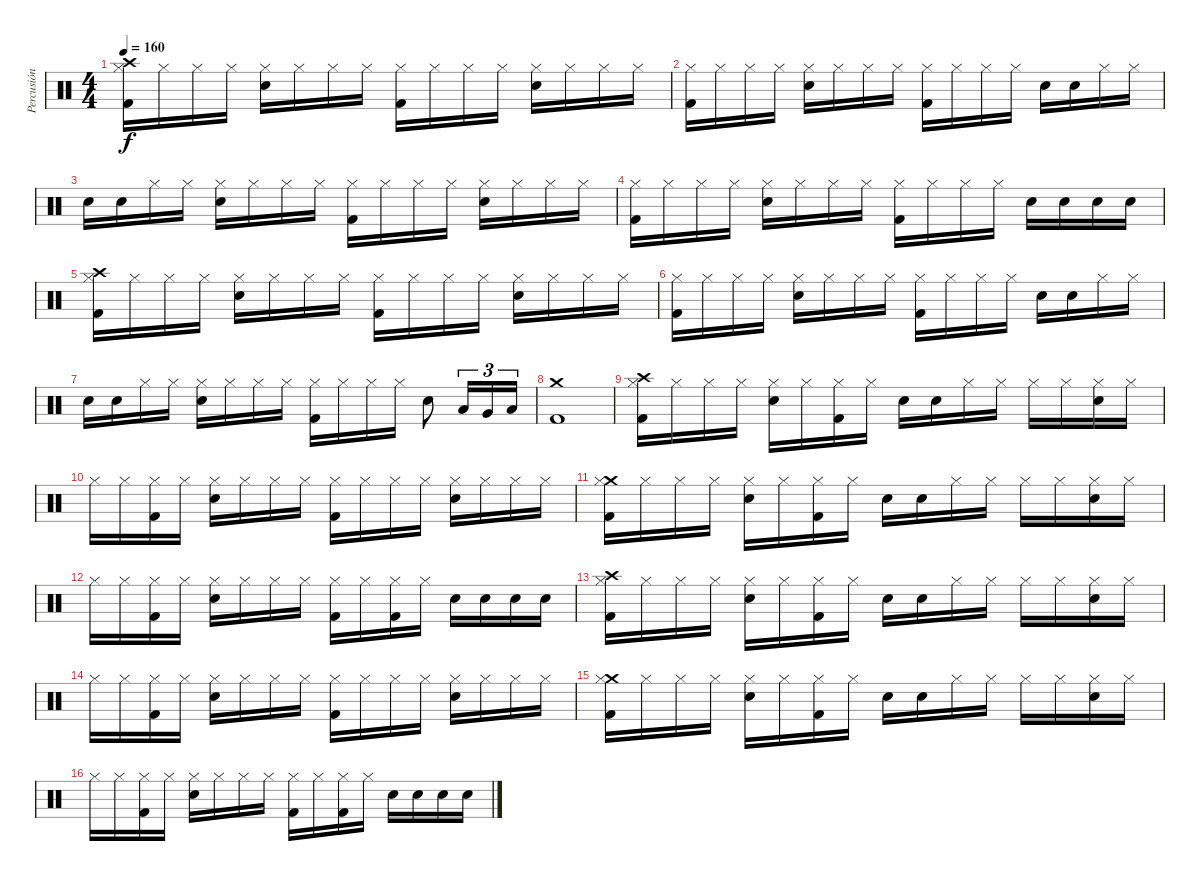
\track ("Percusión" "Percusión") {instrument percussion}
\staff {score}
\articulation defaults
\ts (4 4)
\tempo 160
\clef neutral
\ks c
("Crash high (hit)" "Hi-Hat (closed)" "Kick (hit) 2").16{dy f} "Hi-Hat (closed)".16 "Hi-Hat (closed)".16 "Hi-Hat (closed)".16 ("Hi-Hat (closed)" "Snare (hit) 2").16 "Hi-Hat (closed)".16 "Hi-Hat (closed)".16 "Hi-Hat (closed)".16 ("Hi-Hat (closed)" "Kick (hit) 2").16 "Hi-Hat (closed)".16 "Hi-Hat (closed)".16 "Hi-Hat (closed)".16 ("Hi-Hat (closed)" "Snare (hit) 2").16 "Hi-Hat (closed)".16 "Hi-Hat (closed)".16 "Hi-Hat (closed)".16 |
("Hi-Hat (closed)" "Kick (hit) 2").16 "Hi-Hat (closed)".16 "Hi-Hat (closed)".16 "Hi-Hat (closed)".16 ("Hi-Hat (closed)" "Snare (hit) 2").16 "Hi-Hat (closed)".16 "Hi-Hat (closed)".16 "Hi-Hat (closed)".16 ("Hi-Hat (closed)" "Kick (hit) 2").16 "Hi-Hat (closed)".16 "Hi-Hat (closed)".16 "Hi-Hat (closed)".16 "Snare (hit) 2".16 "Snare (hit) 2".16 "Hi-Hat (closed)".16 "Hi-Hat (closed)".16 |
"Snare (hit) 2".16 "Snare (hit) 2".16 "Hi-Hat (closed)".16 "Hi-Hat (closed)".16 ("Hi-Hat (closed)" "Snare (hit) 2").16 "Hi-Hat (closed)".16 "Hi-Hat (closed)".16 "Hi-Hat (closed)".16 ("Hi-Hat (closed)" "Kick (hit) 2").16 "Hi-Hat (closed)".16 "Hi-Hat (closed)".16 "Hi-Hat (closed)".16 ("Hi-Hat (closed)" "Snare (hit) 2").16 "Hi-Hat (closed)".16 "Hi-Hat (closed)".16 "Hi-Hat (closed)".16 |
("Hi-Hat (closed)" "Kick (hit) 2").16 "Hi-Hat (closed)".16 "Hi-Hat (closed)".16 "Hi-Hat (closed)".16 ("Hi-Hat (closed)" "Snare (hit) 2").16 "Hi-Hat (closed)".16 "Hi-Hat (closed)".16 "Hi-Hat (closed)".16 ("Hi-Hat (closed)" "Kick (hit) 2").16 "Hi-Hat (closed)".16 "Hi-Hat (closed)".16 "Hi-Hat (closed)".16 "Snare (hit) 2".16 "Snare (hit) 2".16 "Snare (hit) 2".16 "Snare (hit) 2".16 |
("Crash high (hit)" "Hi-Hat (closed)" "Kick (hit) 2").16 "Hi-Hat (closed)".16 "Hi-Hat (closed)".16 "Hi-Hat (closed)".16 ("Hi-Hat (closed)" "Snare (hit) 2").16 "Hi-Hat (closed)".16 "Hi-Hat (closed)".16 "Hi-Hat (closed)".16 ("Hi-Hat (closed)" "Kick (hit) 2").16 "Hi-Hat (closed)".16 "Hi-Hat (closed)".16 "Hi-Hat (closed)".16 ("Hi-Hat (closed)" "Snare (hit) 2").16 "Hi-Hat (closed)".16 "Hi-Hat (closed)".16 "Hi-Hat (closed)".16 |
("Hi-Hat (closed)" "Kick (hit) 2").16 "Hi-Hat (closed)".16 "Hi-Hat (closed)".16 "Hi-Hat (closed)".16 ("Hi-Hat (closed)" "Snare (hit) 2").16 "Hi-Hat (closed)".16 "Hi-Hat (closed)".16 "Hi-Hat (closed)".16 ("Hi-Hat (closed)" "Kick (hit) 2").16 "Hi-Hat (closed)".16 "Hi-Hat (closed)".16 "Hi-Hat (closed)".16 "Snare (hit) 2".16 "Snare (hit) 2".16 "Hi-Hat (closed)".16 "Hi-Hat (closed)".16 |
"Snare (hit) 2".16 "Snare (hit) 2".16 "Hi-Hat (closed)".16 "Hi-Hat (closed)".16 ("Hi-Hat (closed)" "Snare (hit) 2").16 "Hi-Hat (closed)".16 "Hi-Hat (closed)".16 "Hi-Hat (closed)".16 ("Hi-Hat (closed)" "Kick (hit) 2").16 "Hi-Hat (closed)".16 "Hi-Hat (closed)".16 "Hi-Hat (closed)".16 "Snare (hit) 2".8 "Low Tom (hit)".16{tu (3 2)} "Very Low Tom (hit)".16{tu (3 2)} "Low Floor Tom (hit)".16{tu (3 2)} |
("Crash medium (hit)" "Kick (hit) 2").1 |
("Crash high (hit)" "Hi-Hat (closed)" "Kick (hit) 2").16 "Hi-Hat (closed)".16 "Hi-Hat (closed)".16 "Hi-Hat (closed)".16 ("Hi-Hat (closed)" "Snare (hit) 2").16 "Hi-Hat (closed)".16 ("Hi-Hat (closed)" "Kick (hit) 2").16 "Hi-Hat (closed)".16 "Snare (hit) 2".16 "Snare (hit) 2".16 "Hi-Hat (closed)".16 "Hi-Hat (closed)".16 "Hi-Hat (closed)".16 "Hi-Hat (closed)".16 ("Hi-Hat (closed)" "Snare (hit) 2").16 "Hi-Hat (closed)".16 |
"Hi-Hat (closed)".16 "Hi-Hat (closed)".16 ("Hi-Hat (closed)" "Kick (hit) 2").16 "Hi-Hat (closed)".16 ("Hi-Hat (closed)" "Snare (hit) 2").16 "Hi-Hat (closed)".16 "Hi-Hat (closed)".16 "Hi-Hat (closed)".16 ("Hi-Hat (closed)" "Kick (hit) 2").16 "Hi-Hat (closed)".16 "Hi-Hat (closed)".16 "Hi-Hat (closed)".16 ("Hi-Hat (closed)" "Snare (hit) 2").16 "Hi-Hat (closed)".16 "Hi-Hat (closed)".16 "Hi-Hat (closed)".16 |
("Crash medium (hit)" "Hi-Hat (closed)" "Kick (hit) 2").16 "Hi-Hat (closed)".16 "Hi-Hat (closed)".16 "Hi-Hat (closed)".16 ("Hi-Hat (closed)" "Snare (hit) 2").16 "Hi-Hat (closed)".16 ("Hi-Hat (closed)" "Kick (hit) 2").16 "Hi-Hat (closed)".16 "Snare (hit) 2".16 "Snare (hit) 2".16 "Hi-Hat (closed)".16 "Hi-Hat (closed)".16 "Hi-Hat (closed)".16 "Hi-Hat (closed)".16 ("Hi-Hat (closed)" "Snare (hit) 2").16 "Hi-Hat (closed)".16 |
"Hi-Hat (closed)".16 "Hi-Hat (closed)".16 ("Hi-Hat (closed)" "Kick (hit) 2").16 "Hi-Hat (closed)".16 ("Hi-Hat (closed)" "Snare (hit) 2").16 "Hi-Hat (closed)".16 "Hi-Hat (closed)".16 "Hi-Hat (closed)".16 ("Hi-Hat (closed)" "Kick (hit) 2").16 "Hi-Hat (closed)".16 ("Hi-Hat (closed)" "Kick (hit) 2").16 "Hi-Hat (closed)".16 "Snare (hit) 2".16 "Snare (hit) 2".16 "Snare (hit) 2".16 "Snare (hit) 2".16 |
("Crash high (hit)" "Hi-Hat (closed)" "Kick (hit) 2").16 "Hi-Hat (closed)".16 "Hi-Hat (closed)".16 "Hi-Hat (closed)".16 ("Hi-Hat (closed)" "Snare (hit) 2").16 "Hi-Hat (closed)".16 ("Hi-Hat (closed)" "Kick (hit) 2").16 "Hi-Hat (closed)".16 "Snare (hit) 2".16 "Snare (hit) 2".16 "Hi-Hat (closed)".16 "Hi-Hat (closed)".16 "Hi-Hat (closed)".16 "Hi-Hat (closed)".16 ("Hi-Hat (closed)" "Snare (hit) 2").16 "Hi-Hat (closed)".16 |
"Hi-Hat (closed)".16 "Hi-Hat (closed)".16 ("Hi-Hat (closed)" "Kick (hit) 2").16 "Hi-Hat (closed)".16 ("Hi-Hat (closed)" "Snare (hit) 2").16 "Hi-Hat (closed)".16 "Hi-Hat (closed)".16 "Hi-Hat (closed)".16 ("Hi-Hat (closed)" "Kick (hit) 2").16 "Hi-Hat (closed)".16 "Hi-Hat (closed)".16 "Hi-Hat (closed)".16 ("Hi-Hat (closed)" "Snare (hit) 2").16 "Hi-Hat (closed)".16 "Hi-Hat (closed)".16 "Hi-Hat (closed)".16 |
("Crash medium (hit)" "Hi-Hat (closed)" "Kick (hit) 2").16 "Hi-Hat (closed)".16 "Hi-Hat (closed)".16 "Hi-Hat (closed)".16 ("Hi-Hat (closed)" "Snare (hit) 2").16 "Hi-Hat (closed)".16 ("Hi-Hat (closed)" "Kick (hit) 2").16 "Hi-Hat (closed)".16 "Snare (hit) 2".16 "Snare (hit) 2".16 "Hi-Hat (closed)".16 "Hi-Hat (closed)".16 "Hi-Hat (closed)".16 "Hi-Hat (closed)".16 ("Hi-Hat (closed)" "Snare (hit) 2").16 "Hi-Hat (closed)".16 |
"Hi-Hat (closed)".16 "Hi-Hat (closed)".16 ("Hi-Hat (closed)" "Kick (hit) 2").16 "Hi-Hat (closed)".16 ("Hi-Hat (closed)" "Snare (hit) 2").16 "Hi-Hat (closed)".16 "Hi-Hat (closed)".16 "Hi-Hat (closed)".16 ("Hi-Hat (closed)" "Kick (hit) 2").16 "Hi-Hat (closed)".16 ("Hi-Hat (closed)" "Kick (hit) 2").16 "Hi-Hat (closed)".16 "Snare (hit) 2".16 "Snare (hit) 2".16 "Snare (hit) 2".16 "Snare (hit) 2".16
